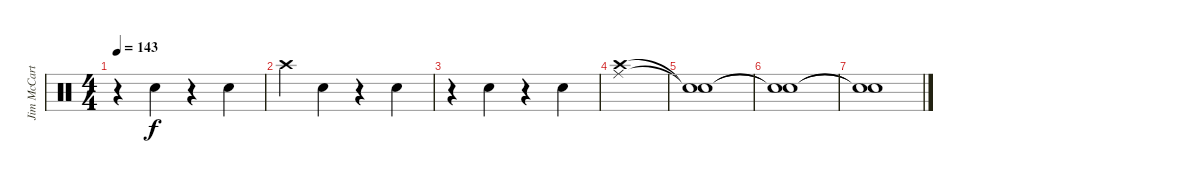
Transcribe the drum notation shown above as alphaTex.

\track ("Jim McCarty" "Jim McCart") {instrument percussion}
\staff {score}
\articulation defaults
\ts (4 4)
\tempo 143
\clef neutral
\ks c
r.4{dy f} "Electric Snare (hit)".4 r.4 "Electric Snare (hit)".4 |
"Crash high (hit)".4 "Electric Snare (hit)".4 r.4 "Electric Snare (hit)".4 |
r.4 "Electric Snare (hit)".4 r.4 "Electric Snare (hit)".4 |
("Crash high (hit)" "Ride (middle)").1 |
("Snare (hit)"{t} "Snare (hit)"{t}).1 |
("Snare (hit)"{t} "Snare (hit)"{t}).1 |
("Snare (hit)"{t} "Snare (hit)"{t}).1
